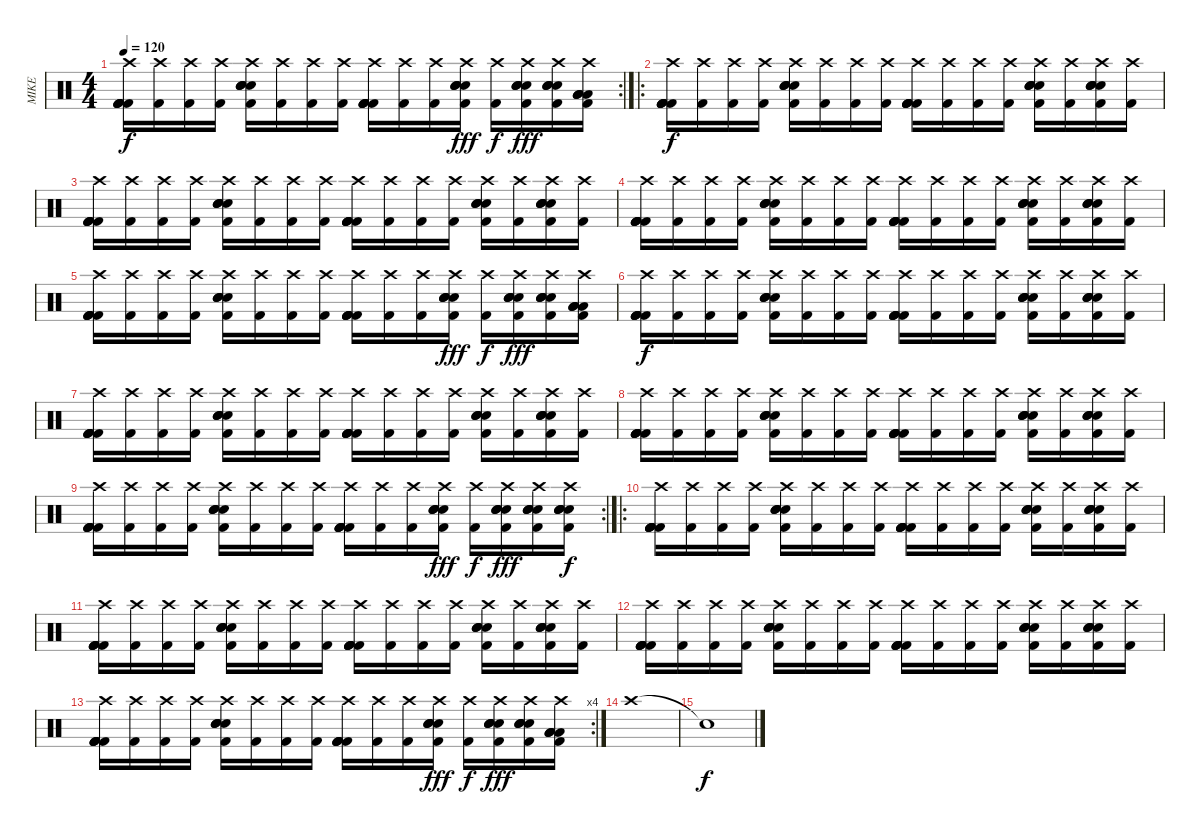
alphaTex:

\track ("MIKE" "MIKE") {instrument percussion}
\staff {score}
\articulation defaults
\rc 2
\ts (4 4)
\tempo 120
\clef neutral
\ks c
("Kick (hit) 2" "Kick (hit) 2" "Kick (hit) 2" "Kick (hit) 2" "Kick (hit) 2" "Crash high (hit)").16{dy f} ("Kick (hit) 2" "Crash high (hit)").16 ("Kick (hit) 2" "Crash high (hit)").16 ("Kick (hit) 2" "Crash high (hit)").16 ("Electric Snare (hit)" "Electric Snare (hit)" "Electric Snare (hit)" "Electric Snare (hit)" "Kick (hit) 2" "Crash high (hit)").16 ("Kick (hit) 2" "Crash high (hit)").16 ("Kick (hit) 2" "Crash high (hit)").16 ("Kick (hit) 2" "Crash high (hit)").16 ("Kick (hit) 2" "Kick (hit) 2" "Kick (hit) 2" "Kick (hit) 2" "Kick (hit) 2" "Crash high (hit)").16 ("Kick (hit) 2" "Crash high (hit)").16 ("Kick (hit) 2" "Crash high (hit)").16 ("Electric Snare (hit)" "Electric Snare (hit)" "Electric Snare (hit)" "Electric Snare (hit)" "Kick (hit) 2" "Crash high (hit)").16{dy fff} ("Kick (hit) 2" "Crash high (hit)").16{dy f} ("Electric Snare (hit)" "Electric Snare (hit)" "Electric Snare (hit)" "Electric Snare (hit)" "Kick (hit) 2" "Crash high (hit)").16{dy fff} ("Electric Snare (hit)" "Electric Snare (hit)" "Electric Snare (hit)" "Electric Snare (hit)" "Kick (hit) 2" "Crash high (hit)").16 ("Low Floor Tom (hit)" "Low Floor Tom (hit)" "Low Floor Tom (hit)" "Low Floor Tom (hit)" "Kick (hit) 2" "Crash high (hit)").16 |
\ro
("Kick (hit) 2" "Kick (hit) 2" "Kick (hit) 2" "Kick (hit) 2" "Kick (hit) 2" "Crash high (hit)").16{dy f} ("Kick (hit) 2" "Crash high (hit)").16 ("Kick (hit) 2" "Crash high (hit)").16 ("Kick (hit) 2" "Crash high (hit)").16 ("Electric Snare (hit)" "Electric Snare (hit)" "Electric Snare (hit)" "Electric Snare (hit)" "Kick (hit) 2" "Crash high (hit)").16 ("Kick (hit) 2" "Crash high (hit)").16 ("Kick (hit) 2" "Crash high (hit)").16 ("Kick (hit) 2" "Crash high (hit)").16 ("Kick (hit) 2" "Kick (hit) 2" "Kick (hit) 2" "Kick (hit) 2" "Kick (hit) 2" "Crash high (hit)").16 ("Kick (hit) 2" "Crash high (hit)").16 ("Kick (hit) 2" "Crash high (hit)").16 ("Kick (hit) 2" "Crash high (hit)").16 ("Electric Snare (hit)" "Electric Snare (hit)" "Electric Snare (hit)" "Electric Snare (hit)" "Kick (hit) 2" "Crash high (hit)").16 ("Kick (hit) 2" "Crash high (hit)").16 ("Electric Snare (hit)" "Electric Snare (hit)" "Electric Snare (hit)" "Electric Snare (hit)" "Kick (hit) 2" "Crash high (hit)").16 ("Kick (hit) 2" "Crash high (hit)").16 |
("Kick (hit) 2" "Kick (hit) 2" "Kick (hit) 2" "Kick (hit) 2" "Kick (hit) 2" "Crash high (hit)").16 ("Kick (hit) 2" "Crash high (hit)").16 ("Kick (hit) 2" "Crash high (hit)").16 ("Kick (hit) 2" "Crash high (hit)").16 ("Electric Snare (hit)" "Electric Snare (hit)" "Electric Snare (hit)" "Electric Snare (hit)" "Kick (hit) 2" "Crash high (hit)").16 ("Kick (hit) 2" "Crash high (hit)").16 ("Kick (hit) 2" "Crash high (hit)").16 ("Kick (hit) 2" "Crash high (hit)").16 ("Kick (hit) 2" "Kick (hit) 2" "Kick (hit) 2" "Kick (hit) 2" "Kick (hit) 2" "Crash high (hit)").16 ("Kick (hit) 2" "Crash high (hit)").16 ("Kick (hit) 2" "Crash high (hit)").16 ("Kick (hit) 2" "Crash high (hit)").16 ("Electric Snare (hit)" "Electric Snare (hit)" "Electric Snare (hit)" "Electric Snare (hit)" "Kick (hit) 2" "Crash high (hit)").16 ("Kick (hit) 2" "Crash high (hit)").16 ("Electric Snare (hit)" "Electric Snare (hit)" "Electric Snare (hit)" "Electric Snare (hit)" "Kick (hit) 2" "Crash high (hit)").16 ("Kick (hit) 2" "Crash high (hit)").16 |
("Kick (hit) 2" "Kick (hit) 2" "Kick (hit) 2" "Kick (hit) 2" "Kick (hit) 2" "Crash high (hit)").16 ("Kick (hit) 2" "Crash high (hit)").16 ("Kick (hit) 2" "Crash high (hit)").16 ("Kick (hit) 2" "Crash high (hit)").16 ("Electric Snare (hit)" "Electric Snare (hit)" "Electric Snare (hit)" "Electric Snare (hit)" "Kick (hit) 2" "Crash high (hit)").16 ("Kick (hit) 2" "Crash high (hit)").16 ("Kick (hit) 2" "Crash high (hit)").16 ("Kick (hit) 2" "Crash high (hit)").16 ("Kick (hit) 2" "Kick (hit) 2" "Kick (hit) 2" "Kick (hit) 2" "Kick (hit) 2" "Crash high (hit)").16 ("Kick (hit) 2" "Crash high (hit)").16 ("Kick (hit) 2" "Crash high (hit)").16 ("Kick (hit) 2" "Crash high (hit)").16 ("Electric Snare (hit)" "Electric Snare (hit)" "Electric Snare (hit)" "Electric Snare (hit)" "Kick (hit) 2" "Crash high (hit)").16 ("Kick (hit) 2" "Crash high (hit)").16 ("Electric Snare (hit)" "Electric Snare (hit)" "Electric Snare (hit)" "Electric Snare (hit)" "Kick (hit) 2" "Crash high (hit)").16 ("Kick (hit) 2" "Crash high (hit)").16 |
("Kick (hit) 2" "Kick (hit) 2" "Kick (hit) 2" "Kick (hit) 2" "Kick (hit) 2" "Crash high (hit)").16 ("Kick (hit) 2" "Crash high (hit)").16 ("Kick (hit) 2" "Crash high (hit)").16 ("Kick (hit) 2" "Crash high (hit)").16 ("Electric Snare (hit)" "Electric Snare (hit)" "Electric Snare (hit)" "Electric Snare (hit)" "Kick (hit) 2" "Crash high (hit)").16 ("Kick (hit) 2" "Crash high (hit)").16 ("Kick (hit) 2" "Crash high (hit)").16 ("Kick (hit) 2" "Crash high (hit)").16 ("Kick (hit) 2" "Kick (hit) 2" "Kick (hit) 2" "Kick (hit) 2" "Kick (hit) 2" "Crash high (hit)").16 ("Kick (hit) 2" "Crash high (hit)").16 ("Kick (hit) 2" "Crash high (hit)").16 ("Electric Snare (hit)" "Electric Snare (hit)" "Electric Snare (hit)" "Electric Snare (hit)" "Kick (hit) 2" "Crash high (hit)").16{dy fff} ("Kick (hit) 2" "Crash high (hit)").16{dy f} ("Electric Snare (hit)" "Electric Snare (hit)" "Electric Snare (hit)" "Electric Snare (hit)" "Kick (hit) 2" "Crash high (hit)").16{dy fff} ("Electric Snare (hit)" "Electric Snare (hit)" "Electric Snare (hit)" "Electric Snare (hit)" "Kick (hit) 2" "Crash high (hit)").16 ("Low Floor Tom (hit)" "Low Floor Tom (hit)" "Low Floor Tom (hit)" "Low Floor Tom (hit)" "Kick (hit) 2" "Crash high (hit)").16 |
("Kick (hit) 2" "Kick (hit) 2" "Kick (hit) 2" "Kick (hit) 2" "Kick (hit) 2" "Crash high (hit)").16{dy f} ("Kick (hit) 2" "Crash high (hit)").16 ("Kick (hit) 2" "Crash high (hit)").16 ("Kick (hit) 2" "Crash high (hit)").16 ("Electric Snare (hit)" "Electric Snare (hit)" "Electric Snare (hit)" "Electric Snare (hit)" "Kick (hit) 2" "Crash high (hit)").16 ("Kick (hit) 2" "Crash high (hit)").16 ("Kick (hit) 2" "Crash high (hit)").16 ("Kick (hit) 2" "Crash high (hit)").16 ("Kick (hit) 2" "Kick (hit) 2" "Kick (hit) 2" "Kick (hit) 2" "Kick (hit) 2" "Crash high (hit)").16 ("Kick (hit) 2" "Crash high (hit)").16 ("Kick (hit) 2" "Crash high (hit)").16 ("Kick (hit) 2" "Crash high (hit)").16 ("Electric Snare (hit)" "Electric Snare (hit)" "Electric Snare (hit)" "Electric Snare (hit)" "Kick (hit) 2" "Crash high (hit)").16 ("Kick (hit) 2" "Crash high (hit)").16 ("Electric Snare (hit)" "Electric Snare (hit)" "Electric Snare (hit)" "Electric Snare (hit)" "Kick (hit) 2" "Crash high (hit)").16 ("Kick (hit) 2" "Crash high (hit)").16 |
("Kick (hit) 2" "Kick (hit) 2" "Kick (hit) 2" "Kick (hit) 2" "Kick (hit) 2" "Crash high (hit)").16 ("Kick (hit) 2" "Crash high (hit)").16 ("Kick (hit) 2" "Crash high (hit)").16 ("Kick (hit) 2" "Crash high (hit)").16 ("Electric Snare (hit)" "Electric Snare (hit)" "Electric Snare (hit)" "Electric Snare (hit)" "Kick (hit) 2" "Crash high (hit)").16 ("Kick (hit) 2" "Crash high (hit)").16 ("Kick (hit) 2" "Crash high (hit)").16 ("Kick (hit) 2" "Crash high (hit)").16 ("Kick (hit) 2" "Kick (hit) 2" "Kick (hit) 2" "Kick (hit) 2" "Kick (hit) 2" "Crash high (hit)").16 ("Kick (hit) 2" "Crash high (hit)").16 ("Kick (hit) 2" "Crash high (hit)").16 ("Kick (hit) 2" "Crash high (hit)").16 ("Electric Snare (hit)" "Electric Snare (hit)" "Electric Snare (hit)" "Electric Snare (hit)" "Kick (hit) 2" "Crash high (hit)").16 ("Kick (hit) 2" "Crash high (hit)").16 ("Electric Snare (hit)" "Electric Snare (hit)" "Electric Snare (hit)" "Electric Snare (hit)" "Kick (hit) 2" "Crash high (hit)").16 ("Kick (hit) 2" "Crash high (hit)").16 |
("Kick (hit) 2" "Kick (hit) 2" "Kick (hit) 2" "Kick (hit) 2" "Kick (hit) 2" "Crash high (hit)").16 ("Kick (hit) 2" "Crash high (hit)").16 ("Kick (hit) 2" "Crash high (hit)").16 ("Kick (hit) 2" "Crash high (hit)").16 ("Electric Snare (hit)" "Electric Snare (hit)" "Electric Snare (hit)" "Electric Snare (hit)" "Kick (hit) 2" "Crash high (hit)").16 ("Kick (hit) 2" "Crash high (hit)").16 ("Kick (hit) 2" "Crash high (hit)").16 ("Kick (hit) 2" "Crash high (hit)").16 ("Kick (hit) 2" "Kick (hit) 2" "Kick (hit) 2" "Kick (hit) 2" "Kick (hit) 2" "Crash high (hit)").16 ("Kick (hit) 2" "Crash high (hit)").16 ("Kick (hit) 2" "Crash high (hit)").16 ("Kick (hit) 2" "Crash high (hit)").16 ("Electric Snare (hit)" "Electric Snare (hit)" "Electric Snare (hit)" "Electric Snare (hit)" "Kick (hit) 2" "Crash high (hit)").16 ("Kick (hit) 2" "Crash high (hit)").16 ("Electric Snare (hit)" "Electric Snare (hit)" "Electric Snare (hit)" "Electric Snare (hit)" "Kick (hit) 2" "Crash high (hit)").16 ("Kick (hit) 2" "Crash high (hit)").16 |
\rc 2
("Kick (hit) 2" "Kick (hit) 2" "Kick (hit) 2" "Kick (hit) 2" "Kick (hit) 2" "Crash high (hit)").16 ("Kick (hit) 2" "Crash high (hit)").16 ("Kick (hit) 2" "Crash high (hit)").16 ("Kick (hit) 2" "Crash high (hit)").16 ("Electric Snare (hit)" "Electric Snare (hit)" "Electric Snare (hit)" "Electric Snare (hit)" "Kick (hit) 2" "Crash high (hit)").16 ("Kick (hit) 2" "Crash high (hit)").16 ("Kick (hit) 2" "Crash high (hit)").16 ("Kick (hit) 2" "Crash high (hit)").16 ("Kick (hit) 2" "Kick (hit) 2" "Kick (hit) 2" "Kick (hit) 2" "Kick (hit) 2" "Crash high (hit)").16 ("Kick (hit) 2" "Crash high (hit)").16 ("Kick (hit) 2" "Crash high (hit)").16 ("Electric Snare (hit)" "Electric Snare (hit)" "Electric Snare (hit)" "Electric Snare (hit)" "Kick (hit) 2" "Crash high (hit)").16{dy fff} ("Kick (hit) 2" "Crash high (hit)").16{dy f} ("Electric Snare (hit)" "Electric Snare (hit)" "Electric Snare (hit)" "Electric Snare (hit)" "Kick (hit) 2" "Crash high (hit)").16{dy fff} ("Electric Snare (hit)" "Electric Snare (hit)" "Electric Snare (hit)" "Electric Snare (hit)" "Kick (hit) 2" "Crash high (hit)").16 ("Electric Snare (hit)" "Electric Snare (hit)" "Electric Snare (hit)" "Electric Snare (hit)" "Kick (hit) 2" "Crash high (hit)").16{dy f} |
\ro
("Kick (hit) 2" "Kick (hit) 2" "Kick (hit) 2" "Kick (hit) 2" "Kick (hit) 2" "Crash high (hit)").16 ("Kick (hit) 2" "Crash high (hit)").16 ("Kick (hit) 2" "Crash high (hit)").16 ("Kick (hit) 2" "Crash high (hit)").16 ("Electric Snare (hit)" "Electric Snare (hit)" "Electric Snare (hit)" "Electric Snare (hit)" "Kick (hit) 2" "Crash high (hit)").16 ("Kick (hit) 2" "Crash high (hit)").16 ("Kick (hit) 2" "Crash high (hit)").16 ("Kick (hit) 2" "Crash high (hit)").16 ("Kick (hit) 2" "Kick (hit) 2" "Kick (hit) 2" "Kick (hit) 2" "Kick (hit) 2" "Crash high (hit)").16 ("Kick (hit) 2" "Crash high (hit)").16 ("Kick (hit) 2" "Crash high (hit)").16 ("Kick (hit) 2" "Crash high (hit)").16 ("Electric Snare (hit)" "Electric Snare (hit)" "Electric Snare (hit)" "Electric Snare (hit)" "Kick (hit) 2" "Crash high (hit)").16 ("Kick (hit) 2" "Crash high (hit)").16 ("Electric Snare (hit)" "Electric Snare (hit)" "Electric Snare (hit)" "Electric Snare (hit)" "Kick (hit) 2" "Crash high (hit)").16 ("Kick (hit) 2" "Crash high (hit)").16 |
("Kick (hit) 2" "Kick (hit) 2" "Kick (hit) 2" "Kick (hit) 2" "Kick (hit) 2" "Crash high (hit)").16 ("Kick (hit) 2" "Crash high (hit)").16 ("Kick (hit) 2" "Crash high (hit)").16 ("Kick (hit) 2" "Crash high (hit)").16 ("Electric Snare (hit)" "Electric Snare (hit)" "Electric Snare (hit)" "Electric Snare (hit)" "Kick (hit) 2" "Crash high (hit)").16 ("Kick (hit) 2" "Crash high (hit)").16 ("Kick (hit) 2" "Crash high (hit)").16 ("Kick (hit) 2" "Crash high (hit)").16 ("Kick (hit) 2" "Kick (hit) 2" "Kick (hit) 2" "Kick (hit) 2" "Kick (hit) 2" "Crash high (hit)").16 ("Kick (hit) 2" "Crash high (hit)").16 ("Kick (hit) 2" "Crash high (hit)").16 ("Kick (hit) 2" "Crash high (hit)").16 ("Electric Snare (hit)" "Electric Snare (hit)" "Electric Snare (hit)" "Electric Snare (hit)" "Kick (hit) 2" "Crash high (hit)").16 ("Kick (hit) 2" "Crash high (hit)").16 ("Electric Snare (hit)" "Electric Snare (hit)" "Electric Snare (hit)" "Electric Snare (hit)" "Kick (hit) 2" "Crash high (hit)").16 ("Kick (hit) 2" "Crash high (hit)").16 |
("Kick (hit) 2" "Kick (hit) 2" "Kick (hit) 2" "Kick (hit) 2" "Kick (hit) 2" "Crash high (hit)").16 ("Kick (hit) 2" "Crash high (hit)").16 ("Kick (hit) 2" "Crash high (hit)").16 ("Kick (hit) 2" "Crash high (hit)").16 ("Electric Snare (hit)" "Electric Snare (hit)" "Electric Snare (hit)" "Electric Snare (hit)" "Kick (hit) 2" "Crash high (hit)").16 ("Kick (hit) 2" "Crash high (hit)").16 ("Kick (hit) 2" "Crash high (hit)").16 ("Kick (hit) 2" "Crash high (hit)").16 ("Kick (hit) 2" "Kick (hit) 2" "Kick (hit) 2" "Kick (hit) 2" "Kick (hit) 2" "Crash high (hit)").16 ("Kick (hit) 2" "Crash high (hit)").16 ("Kick (hit) 2" "Crash high (hit)").16 ("Kick (hit) 2" "Crash high (hit)").16 ("Electric Snare (hit)" "Electric Snare (hit)" "Electric Snare (hit)" "Electric Snare (hit)" "Kick (hit) 2" "Crash high (hit)").16 ("Kick (hit) 2" "Crash high (hit)").16 ("Electric Snare (hit)" "Electric Snare (hit)" "Electric Snare (hit)" "Electric Snare (hit)" "Kick (hit) 2" "Crash high (hit)").16 ("Kick (hit) 2" "Crash high (hit)").16 |
\rc 4
("Kick (hit) 2" "Kick (hit) 2" "Kick (hit) 2" "Kick (hit) 2" "Kick (hit) 2" "Crash high (hit)").16 ("Kick (hit) 2" "Crash high (hit)").16 ("Kick (hit) 2" "Crash high (hit)").16 ("Kick (hit) 2" "Crash high (hit)").16 ("Electric Snare (hit)" "Electric Snare (hit)" "Electric Snare (hit)" "Electric Snare (hit)" "Kick (hit) 2" "Crash high (hit)").16 ("Kick (hit) 2" "Crash high (hit)").16 ("Kick (hit) 2" "Crash high (hit)").16 ("Kick (hit) 2" "Crash high (hit)").16 ("Kick (hit) 2" "Kick (hit) 2" "Kick (hit) 2" "Kick (hit) 2" "Kick (hit) 2" "Crash high (hit)").16 ("Kick (hit) 2" "Crash high (hit)").16 ("Kick (hit) 2" "Crash high (hit)").16 ("Electric Snare (hit)" "Electric Snare (hit)" "Electric Snare (hit)" "Electric Snare (hit)" "Kick (hit) 2" "Crash high (hit)").16{dy fff} ("Kick (hit) 2" "Crash high (hit)").16{dy f} ("Electric Snare (hit)" "Electric Snare (hit)" "Electric Snare (hit)" "Electric Snare (hit)" "Kick (hit) 2" "Crash high (hit)").16{dy fff} ("Electric Snare (hit)" "Electric Snare (hit)" "Electric Snare (hit)" "Electric Snare (hit)" "Kick (hit) 2" "Crash high (hit)").16 ("Low Floor Tom (hit)" "Low Floor Tom (hit)" "Low Floor Tom (hit)" "Low Floor Tom (hit)" "Kick (hit) 2" "Crash high (hit)").16 |
"Crash high (hit)".1 |
"Snare (hit)"{t}.1{dy f}
